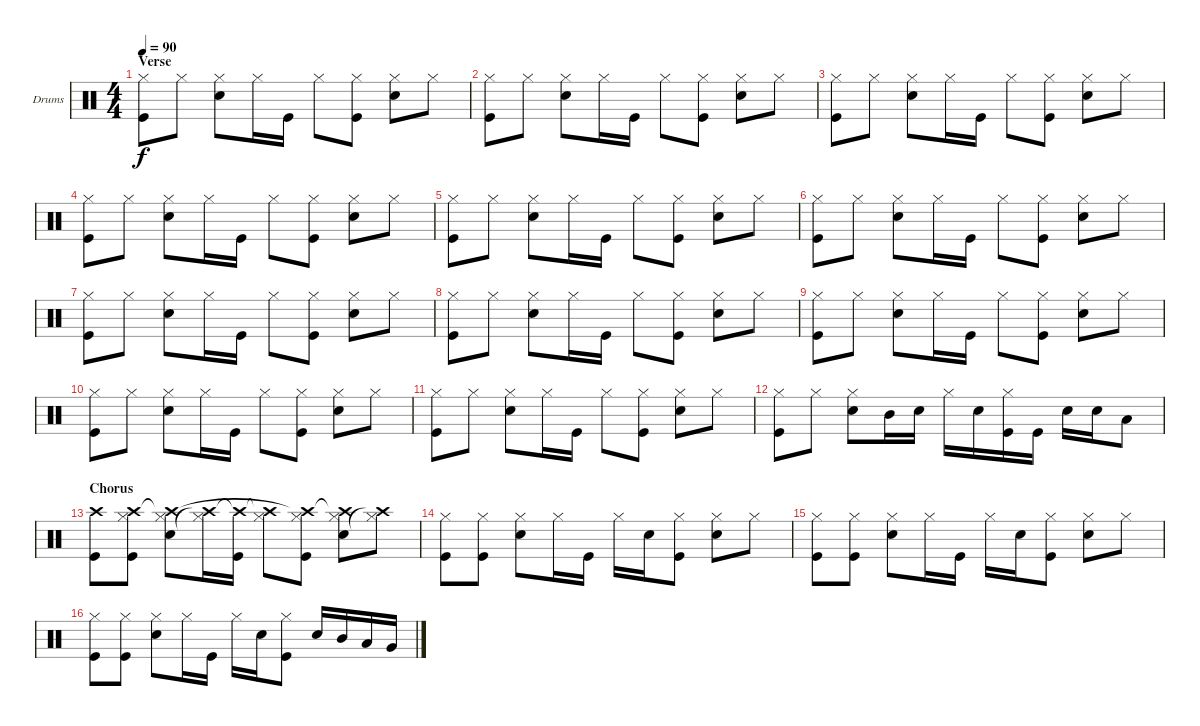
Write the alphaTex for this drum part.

\defaultSystemsLayout 4
\bracketExtendMode groupsimilarinstruments
\firstSystemTrackNameOrientation horizontal
\otherSystemsTrackNameOrientation horizontal
\track ("Drums" "Drums") {instrument percussion}
\staff {score}
\articulation defaults
\ts (4 4)
\section ("" "Verse")
\tempo 90
\clef neutral
\scale
0.333333
\ks c
("Hi-Hat (closed)" "Kick (hit)").8{dy f} "Hi-Hat (closed)".8 ("Hi-Hat (closed)" "Snare (hit) 2").8 "Hi-Hat (closed)".16 "Kick (hit)".16 "Hi-Hat (closed)".8 ("Hi-Hat (closed)" "Kick (hit)").8 ("Hi-Hat (closed)" "Snare (hit) 2").8 "Hi-Hat (closed)".8 |
\scale
0.333333 ("Hi-Hat (closed)" "Kick (hit)").8 "Hi-Hat (closed)".8 ("Hi-Hat (closed)" "Snare (hit) 2").8 "Hi-Hat (closed)".16 "Kick (hit)".16 "Hi-Hat (closed)".8 ("Hi-Hat (closed)" "Kick (hit)").8 ("Hi-Hat (closed)" "Snare (hit) 2").8 "Hi-Hat (closed)".8 |
\scale
0.333333 ("Hi-Hat (closed)" "Kick (hit)").8 "Hi-Hat (closed)".8 ("Hi-Hat (closed)" "Snare (hit) 2").8 "Hi-Hat (closed)".16 "Kick (hit)".16 "Hi-Hat (closed)".8 ("Hi-Hat (closed)" "Kick (hit)").8 ("Hi-Hat (closed)" "Snare (hit) 2").8 "Hi-Hat (closed)".8 |
\scale
0.333333 ("Hi-Hat (closed)" "Kick (hit)").8 "Hi-Hat (closed)".8 ("Hi-Hat (closed)" "Snare (hit) 2").8 "Hi-Hat (closed)".16 "Kick (hit)".16 "Hi-Hat (closed)".8 ("Hi-Hat (closed)" "Kick (hit)").8 ("Hi-Hat (closed)" "Snare (hit) 2").8 "Hi-Hat (closed)".8 |
\scale
0.333333 ("Hi-Hat (closed)" "Kick (hit)").8 "Hi-Hat (closed)".8 ("Hi-Hat (closed)" "Snare (hit) 2").8 "Hi-Hat (closed)".16 "Kick (hit)".16 "Hi-Hat (closed)".8 ("Hi-Hat (closed)" "Kick (hit)").8 ("Hi-Hat (closed)" "Snare (hit) 2").8 "Hi-Hat (closed)".8 |
\scale
0.333333 ("Hi-Hat (closed)" "Kick (hit)").8 "Hi-Hat (closed)".8 ("Hi-Hat (closed)" "Snare (hit) 2").8 "Hi-Hat (closed)".16 "Kick (hit)".16 "Hi-Hat (closed)".8 ("Hi-Hat (closed)" "Kick (hit)").8 ("Hi-Hat (closed)" "Snare (hit) 2").8 "Hi-Hat (closed)".8 |
\scale
0.333333 ("Hi-Hat (closed)" "Kick (hit)").8 "Hi-Hat (closed)".8 ("Hi-Hat (closed)" "Snare (hit) 2").8 "Hi-Hat (closed)".16 "Kick (hit)".16 "Hi-Hat (closed)".8 ("Hi-Hat (closed)" "Kick (hit)").8 ("Hi-Hat (closed)" "Snare (hit) 2").8 "Hi-Hat (closed)".8 |
\scale
0.333333 ("Hi-Hat (closed)" "Kick (hit)").8 "Hi-Hat (closed)".8 ("Hi-Hat (closed)" "Snare (hit) 2").8 "Hi-Hat (closed)".16 "Kick (hit)".16 "Hi-Hat (closed)".8 ("Hi-Hat (closed)" "Kick (hit)").8 ("Hi-Hat (closed)" "Snare (hit) 2").8 "Hi-Hat (closed)".8 |
\scale
0.333333 ("Hi-Hat (closed)" "Kick (hit)").8 "Hi-Hat (closed)".8 ("Hi-Hat (closed)" "Snare (hit) 2").8 "Hi-Hat (closed)".16 "Kick (hit)".16 "Hi-Hat (closed)".8 ("Hi-Hat (closed)" "Kick (hit)").8 ("Hi-Hat (closed)" "Snare (hit) 2").8 "Hi-Hat (closed)".8 |
\scale
0.333333 ("Hi-Hat (closed)" "Kick (hit)").8 "Hi-Hat (closed)".8 ("Hi-Hat (closed)" "Snare (hit) 2").8 "Hi-Hat (closed)".16 "Kick (hit)".16 "Hi-Hat (closed)".8 ("Hi-Hat (closed)" "Kick (hit)").8 ("Hi-Hat (closed)" "Snare (hit) 2").8 "Hi-Hat (closed)".8 |
\scale
0.333333 ("Hi-Hat (closed)" "Kick (hit)").8 "Hi-Hat (closed)".8 ("Hi-Hat (closed)" "Snare (hit) 2").8 "Hi-Hat (closed)".16 "Kick (hit)".16 "Hi-Hat (closed)".8 ("Hi-Hat (closed)" "Kick (hit)").8 ("Hi-Hat (closed)" "Snare (hit) 2").8 "Hi-Hat (closed)".8 |
\scale
0.333333 ("Hi-Hat (closed)" "Kick (hit)").8 "Hi-Hat (closed)".8 ("Hi-Hat (closed)" "Snare (hit) 2").8 "Mid Tom (hit)".16 "Snare (hit) 2".16 "Hi-Hat (closed)".16 "Snare (hit) 2".16 ("Kick (hit)" "Hi-Hat (closed)").16 "Kick (hit)".16 "Snare (hit) 2".16 "Snare (hit) 2".16 "Low Tom (hit)".8 |
\section ("" "Chorus")
\scale
0.333333 ("Crash high (hit)" "Kick (hit)").8 ("Hi-Hat (closed)" "Kick (hit)" "Crash high (hit)").8 ("Hi-Hat (closed)" "Snare (hit) 2" "Crash high (hit)"{t}).8 ("Hi-Hat (closed)" "Crash high (hit)"{t}).16 ("Kick (hit)" "Crash high (hit)"{t}).16 ("Hi-Hat (closed)" "Crash high (hit)"{t}).8 ("Hi-Hat (closed)" "Kick (hit)" "Crash high (hit)"{t}).8 ("Hi-Hat (closed)" "Snare (hit) 2" "Crash high (hit)"{t}).8 ("Hi-Hat (closed)" "Crash high (hit)"{t}).8 |
\scale
0.333333 ("Hi-Hat (closed)" "Kick (hit)").8 ("Hi-Hat (closed)" "Kick (hit)").8 ("Hi-Hat (closed)" "Snare (hit) 2").8 "Hi-Hat (closed)".16 "Kick (hit)".16 "Hi-Hat (closed)".16 "Snare (hit) 2".16 ("Hi-Hat (closed)" "Kick (hit)").8 ("Hi-Hat (closed)" "Snare (hit) 2").8 "Hi-Hat (closed)".8 |
\scale
0.333333 ("Hi-Hat (closed)" "Kick (hit)").8 ("Hi-Hat (closed)" "Kick (hit)").8 ("Hi-Hat (closed)" "Snare (hit) 2").8 "Hi-Hat (closed)".16 "Kick (hit)".16 "Hi-Hat (closed)".16 "Snare (hit) 2".16 ("Hi-Hat (closed)" "Kick (hit)").8 ("Hi-Hat (closed)" "Snare (hit) 2").8 "Hi-Hat (closed)".8 |
\scale
0.333333 ("Hi-Hat (closed)" "Kick (hit)").8 ("Hi-Hat (closed)" "Kick (hit)").8 ("Hi-Hat (closed)" "Snare (hit) 2").8 "Hi-Hat (closed)".16 "Kick (hit)".16 "Hi-Hat (closed)".16 "Snare (hit) 2".16 ("Hi-Hat (closed)" "Kick (hit)").8 "Snare (hit) 2".16 "Mid Tom (hit)".16 "Low Tom (hit)".16 "Very Low Tom (hit)".16
